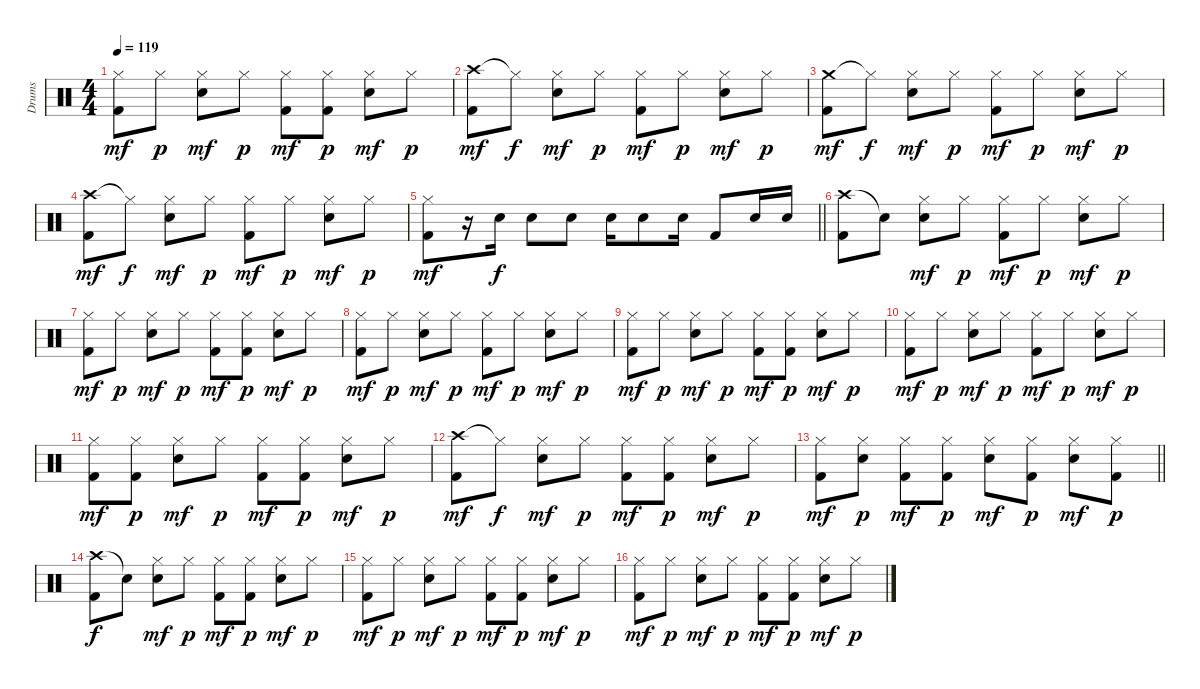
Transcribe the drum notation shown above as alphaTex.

\track ("Drums" "Drums") {instrument percussion}
\staff {score}
\articulation defaults
\ts (4 4)
\tempo 119
\clef neutral
\ks c
("Hi-Hat (closed)" "Kick (hit) 2").8{dy mf} "Hi-Hat (closed)".8{dy p} ("Hi-Hat (closed)" "Electric Snare (hit)").8{dy mf} "Hi-Hat (closed)".8{dy p} ("Hi-Hat (closed)" "Kick (hit) 2").8{dy mf} ("Hi-Hat (closed)" "Kick (hit) 2").8{dy p} ("Hi-Hat (closed)" "Electric Snare (hit)").8{dy mf} "Hi-Hat (closed)".8{dy p} |
("Crash high (hit)" "Kick (hit) 2").8{dy mf} "Hi-Hat (closed)"{t}.8{dy f} ("Hi-Hat (closed)" "Electric Snare (hit)").8{dy mf} "Hi-Hat (closed)".8{dy p} ("Hi-Hat (closed)" "Kick (hit) 2").8{dy mf} "Hi-Hat (closed)".8{dy p} ("Hi-Hat (closed)" "Electric Snare (hit)").8{dy mf} "Hi-Hat (closed)".8{dy p} |
("Crash medium (hit)" "Kick (hit) 2").8{dy mf} "Hi-Hat (closed)"{t}.8{dy f} ("Hi-Hat (closed)" "Electric Snare (hit)").8{dy mf} "Hi-Hat (closed)".8{dy p} ("Hi-Hat (closed)" "Kick (hit) 2").8{dy mf} "Hi-Hat (closed)".8{dy p} ("Hi-Hat (closed)" "Electric Snare (hit)").8{dy mf} "Hi-Hat (closed)".8{dy p} |
("Crash high (hit)" "Kick (hit) 2").8{dy mf} "Hi-Hat (closed)"{t}.8{dy f} ("Hi-Hat (closed)" "Electric Snare (hit)").8{dy mf} "Hi-Hat (closed)".8{dy p} ("Hi-Hat (closed)" "Kick (hit) 2").8{dy mf} "Hi-Hat (closed)".8{dy p} ("Hi-Hat (closed)" "Electric Snare (hit)").8{dy mf} "Hi-Hat (closed)".8{dy p} |
\barLineRight lightlight
("Hi-Hat (closed)" "Kick (hit) 2").8{dy mf} r.16 "Electric Snare (hit)".16{dy f} "Electric Snare (hit)".8 "Electric Snare (hit)".8 "Electric Snare (hit)".16 "Electric Snare (hit)".8 "Electric Snare (hit)".16 "Kick (hit) 2".8 "Electric Snare (hit)".16 "Electric Snare (hit)".16 |
("Crash high (hit)" "Kick (hit) 2").8 "Snare (hit)"{t}.8 ("Hi-Hat (closed)" "Electric Snare (hit)").8{dy mf} "Hi-Hat (closed)".8{dy p} ("Hi-Hat (closed)" "Kick (hit) 2").8{dy mf} "Hi-Hat (closed)".8{dy p} ("Hi-Hat (closed)" "Electric Snare (hit)").8{dy mf} "Hi-Hat (closed)".8{dy p} |
("Hi-Hat (closed)" "Kick (hit) 2").8{dy mf} "Hi-Hat (closed)".8{dy p} ("Hi-Hat (closed)" "Electric Snare (hit)").8{dy mf} "Hi-Hat (closed)".8{dy p} ("Hi-Hat (closed)" "Kick (hit) 2").8{dy mf} ("Hi-Hat (closed)" "Kick (hit) 2").8{dy p} ("Hi-Hat (closed)" "Electric Snare (hit)").8{dy mf} "Hi-Hat (closed)".8{dy p} |
("Hi-Hat (closed)" "Kick (hit) 2").8{dy mf} "Hi-Hat (closed)".8{dy p} ("Hi-Hat (closed)" "Electric Snare (hit)").8{dy mf} "Hi-Hat (closed)".8{dy p} ("Hi-Hat (closed)" "Kick (hit) 2").8{dy mf} "Hi-Hat (closed)".8{dy p} ("Hi-Hat (closed)" "Electric Snare (hit)").8{dy mf} "Hi-Hat (closed)".8{dy p} |
("Hi-Hat (closed)" "Kick (hit) 2").8{dy mf} "Hi-Hat (closed)".8{dy p} ("Hi-Hat (closed)" "Electric Snare (hit)").8{dy mf} "Hi-Hat (closed)".8{dy p} ("Hi-Hat (closed)" "Kick (hit) 2").8{dy mf} ("Hi-Hat (closed)" "Kick (hit) 2").8{dy p} ("Hi-Hat (closed)" "Electric Snare (hit)").8{dy mf} "Hi-Hat (closed)".8{dy p} |
("Hi-Hat (closed)" "Kick (hit) 2").8{dy mf} "Hi-Hat (closed)".8{dy p} ("Hi-Hat (closed)" "Electric Snare (hit)").8{dy mf} "Hi-Hat (closed)".8{dy p} ("Hi-Hat (closed)" "Kick (hit) 2").8{dy mf} "Hi-Hat (closed)".8{dy p} ("Hi-Hat (closed)" "Electric Snare (hit)").8{dy mf} "Hi-Hat (closed)".8{dy p} |
("Hi-Hat (closed)" "Kick (hit) 2").8{dy mf} ("Hi-Hat (closed)" "Kick (hit) 2").8{dy p} ("Hi-Hat (closed)" "Electric Snare (hit)").8{dy mf} "Hi-Hat (closed)".8{dy p} ("Hi-Hat (closed)" "Kick (hit) 2").8{dy mf} ("Hi-Hat (closed)" "Kick (hit) 2").8{dy p} ("Hi-Hat (closed)" "Electric Snare (hit)").8{dy mf} "Hi-Hat (closed)".8{dy p} |
("Crash high (hit)" "Kick (hit) 2").8{dy mf} "Hi-Hat (closed)"{t}.8{dy f} ("Hi-Hat (closed)" "Electric Snare (hit)").8{dy mf} "Hi-Hat (closed)".8{dy p} ("Hi-Hat (closed)" "Kick (hit) 2").8{dy mf} ("Hi-Hat (closed)" "Kick (hit) 2").8{dy p} ("Hi-Hat (closed)" "Electric Snare (hit)").8{dy mf} "Hi-Hat (closed)".8{dy p} |
\barLineRight lightlight
("Hi-Hat (closed)" "Kick (hit) 2").8{dy mf} ("Hi-Hat (closed)" "Electric Snare (hit)").8{dy p} ("Hi-Hat (closed)" "Kick (hit) 2").8{dy mf} ("Hi-Hat (closed)" "Kick (hit) 2").8{dy p} ("Hi-Hat (closed)" "Electric Snare (hit)").8{dy mf} ("Hi-Hat (closed)" "Kick (hit) 2").8{dy p} ("Hi-Hat (closed)" "Electric Snare (hit)").8{dy mf} ("Hi-Hat (closed)" "Kick (hit) 2").8{dy p} |
("Crash high (hit)" "Kick (hit) 2").8{dy f} "Snare (hit)"{t}.8 ("Hi-Hat (closed)" "Electric Snare (hit)").8{dy mf} "Hi-Hat (closed)".8{dy p} ("Hi-Hat (closed)" "Kick (hit) 2").8{dy mf} ("Hi-Hat (closed)" "Kick (hit) 2").8{dy p} ("Hi-Hat (closed)" "Electric Snare (hit)").8{dy mf} "Hi-Hat (closed)".8{dy p} |
("Hi-Hat (closed)" "Kick (hit) 2").8{dy mf} "Hi-Hat (closed)".8{dy p} ("Hi-Hat (closed)" "Electric Snare (hit)").8{dy mf} "Hi-Hat (closed)".8{dy p} ("Hi-Hat (closed)" "Kick (hit) 2").8{dy mf} ("Hi-Hat (closed)" "Kick (hit) 2").8{dy p} ("Hi-Hat (closed)" "Electric Snare (hit)").8{dy mf} "Hi-Hat (closed)".8{dy p} |
("Hi-Hat (closed)" "Kick (hit) 2").8{dy mf} "Hi-Hat (closed)".8{dy p} ("Hi-Hat (closed)" "Electric Snare (hit)").8{dy mf} "Hi-Hat (closed)".8{dy p} ("Hi-Hat (closed)" "Kick (hit) 2").8{dy mf} ("Hi-Hat (closed)" "Kick (hit) 2").8{dy p} ("Hi-Hat (closed)" "Electric Snare (hit)").8{dy mf} "Hi-Hat (closed)".8{dy p}
